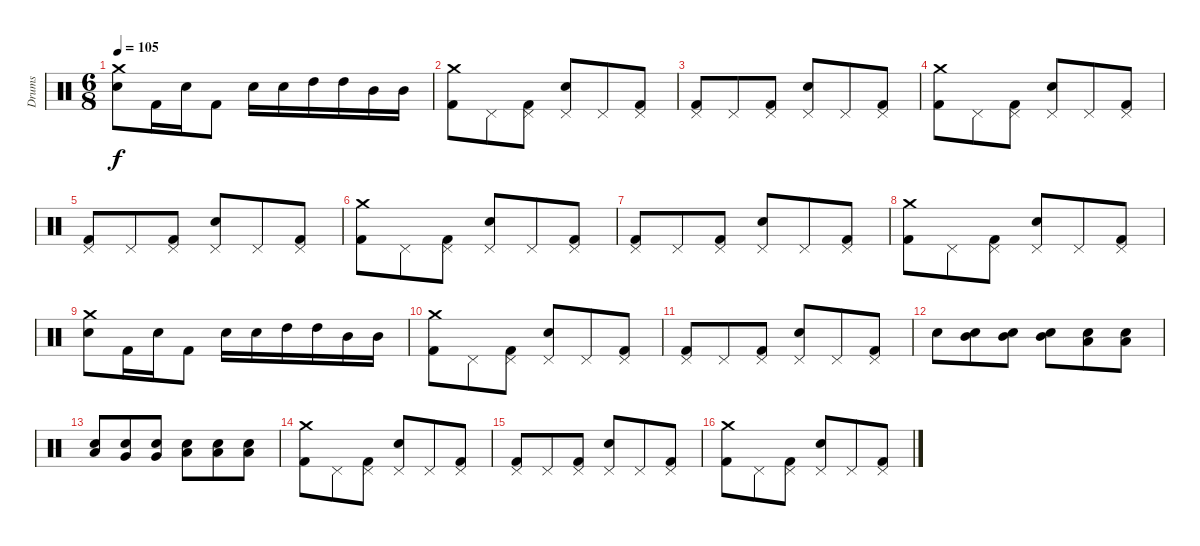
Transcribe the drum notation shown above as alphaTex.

\track ("Drums" "Drums") {instrument percussion}
\staff {score}
\articulation defaults
\ts (6 8)
\tempo 105
\clef neutral
\ks c
("Crash medium (hit)" "Snare (hit) 2").8{dy f} "Kick (hit) 2".16 "Snare (hit) 2".16 "Kick (hit) 2".8 "Snare (hit) 2".16 "Snare (hit) 2".16 "High Tom (hit)".16 "High Tom (hit)".16 "Mid Tom (hit)".16 "Mid Tom (hit)".16 |
("Crash medium (hit)" "Kick (hit) 2").8 "Pedal Hi-Hat (hit)".8 ("Pedal Hi-Hat (hit)" "Kick (hit) 2").8 ("Pedal Hi-Hat (hit)" "Snare (hit) 2").8 "Pedal Hi-Hat (hit)".8 ("Pedal Hi-Hat (hit)" "Kick (hit) 2").8 |
("Pedal Hi-Hat (hit)" "Kick (hit) 2").8 "Pedal Hi-Hat (hit)".8 ("Pedal Hi-Hat (hit)" "Kick (hit) 2").8 ("Pedal Hi-Hat (hit)" "Snare (hit) 2").8 "Pedal Hi-Hat (hit)".8 ("Pedal Hi-Hat (hit)" "Kick (hit) 2").8 |
("Crash medium (hit)" "Kick (hit) 2").8 "Pedal Hi-Hat (hit)".8 ("Pedal Hi-Hat (hit)" "Kick (hit) 2").8 ("Pedal Hi-Hat (hit)" "Snare (hit) 2").8 "Pedal Hi-Hat (hit)".8 ("Pedal Hi-Hat (hit)" "Kick (hit) 2").8 |
("Pedal Hi-Hat (hit)" "Kick (hit) 2").8 "Pedal Hi-Hat (hit)".8 ("Pedal Hi-Hat (hit)" "Kick (hit) 2").8 ("Pedal Hi-Hat (hit)" "Snare (hit) 2").8 "Pedal Hi-Hat (hit)".8 ("Pedal Hi-Hat (hit)" "Kick (hit) 2").8 |
("Crash medium (hit)" "Kick (hit) 2").8 "Pedal Hi-Hat (hit)".8 ("Pedal Hi-Hat (hit)" "Kick (hit) 2").8 ("Pedal Hi-Hat (hit)" "Snare (hit) 2").8 "Pedal Hi-Hat (hit)".8 ("Pedal Hi-Hat (hit)" "Kick (hit) 2").8 |
("Pedal Hi-Hat (hit)" "Kick (hit) 2").8 "Pedal Hi-Hat (hit)".8 ("Pedal Hi-Hat (hit)" "Kick (hit) 2").8 ("Pedal Hi-Hat (hit)" "Snare (hit) 2").8 "Pedal Hi-Hat (hit)".8 ("Pedal Hi-Hat (hit)" "Kick (hit) 2").8 |
("Crash medium (hit)" "Kick (hit) 2").8 "Pedal Hi-Hat (hit)".8 ("Pedal Hi-Hat (hit)" "Kick (hit) 2").8 ("Pedal Hi-Hat (hit)" "Snare (hit) 2").8 "Pedal Hi-Hat (hit)".8 ("Pedal Hi-Hat (hit)" "Kick (hit) 2").8 |
("Crash medium (hit)" "Snare (hit) 2").8 "Kick (hit) 2".16 "Snare (hit) 2".16 "Kick (hit) 2".8 "Snare (hit) 2".16 "Snare (hit) 2".16 "High Tom (hit)".16 "High Tom (hit)".16 "Mid Tom (hit)".16 "Mid Tom (hit)".16 |
("Crash medium (hit)" "Kick (hit) 2").8 "Pedal Hi-Hat (hit)".8 ("Pedal Hi-Hat (hit)" "Kick (hit) 2").8 ("Pedal Hi-Hat (hit)" "Snare (hit) 2").8 "Pedal Hi-Hat (hit)".8 ("Pedal Hi-Hat (hit)" "Kick (hit) 2").8 |
("Pedal Hi-Hat (hit)" "Kick (hit) 2").8 "Pedal Hi-Hat (hit)".8 ("Pedal Hi-Hat (hit)" "Kick (hit) 2").8 ("Pedal Hi-Hat (hit)" "Snare (hit) 2").8 "Pedal Hi-Hat (hit)".8 ("Pedal Hi-Hat (hit)" "Kick (hit) 2").8 |
"Snare (hit) 2".8 ("Mid Tom (hit)" "Snare (hit) 2").8{volume 8} ("Mid Tom (hit)" "Snare (hit) 2").8{volume 13} ("Mid Tom (hit)" "Snare (hit) 2").8 ("Low Tom (hit)" "Snare (hit) 2").8 ("Low Tom (hit)" "Snare (hit) 2").8 |
("Low Tom (hit)" "Snare (hit) 2").8 ("Very Low Tom (hit)" "Snare (hit) 2").8 ("Very Low Tom (hit)" "Snare (hit) 2").8 ("Low Floor Tom (hit)" "Snare (hit) 2").8 ("Low Floor Tom (hit)" "Snare (hit) 2").8 ("Low Floor Tom (hit)" "Snare (hit) 2").8 |
("Crash medium (hit)" "Kick (hit) 2").8 "Pedal Hi-Hat (hit)".8 ("Pedal Hi-Hat (hit)" "Kick (hit) 2").8 ("Pedal Hi-Hat (hit)" "Snare (hit) 2").8 "Pedal Hi-Hat (hit)".8 ("Pedal Hi-Hat (hit)" "Kick (hit) 2").8 |
("Pedal Hi-Hat (hit)" "Kick (hit) 2").8 "Pedal Hi-Hat (hit)".8 ("Pedal Hi-Hat (hit)" "Kick (hit) 2").8 ("Pedal Hi-Hat (hit)" "Snare (hit) 2").8 "Pedal Hi-Hat (hit)".8 ("Pedal Hi-Hat (hit)" "Kick (hit) 2").8 |
("Crash medium (hit)" "Kick (hit) 2").8 "Pedal Hi-Hat (hit)".8 ("Pedal Hi-Hat (hit)" "Kick (hit) 2").8 ("Pedal Hi-Hat (hit)" "Snare (hit) 2").8 "Pedal Hi-Hat (hit)".8 ("Pedal Hi-Hat (hit)" "Kick (hit) 2").8
